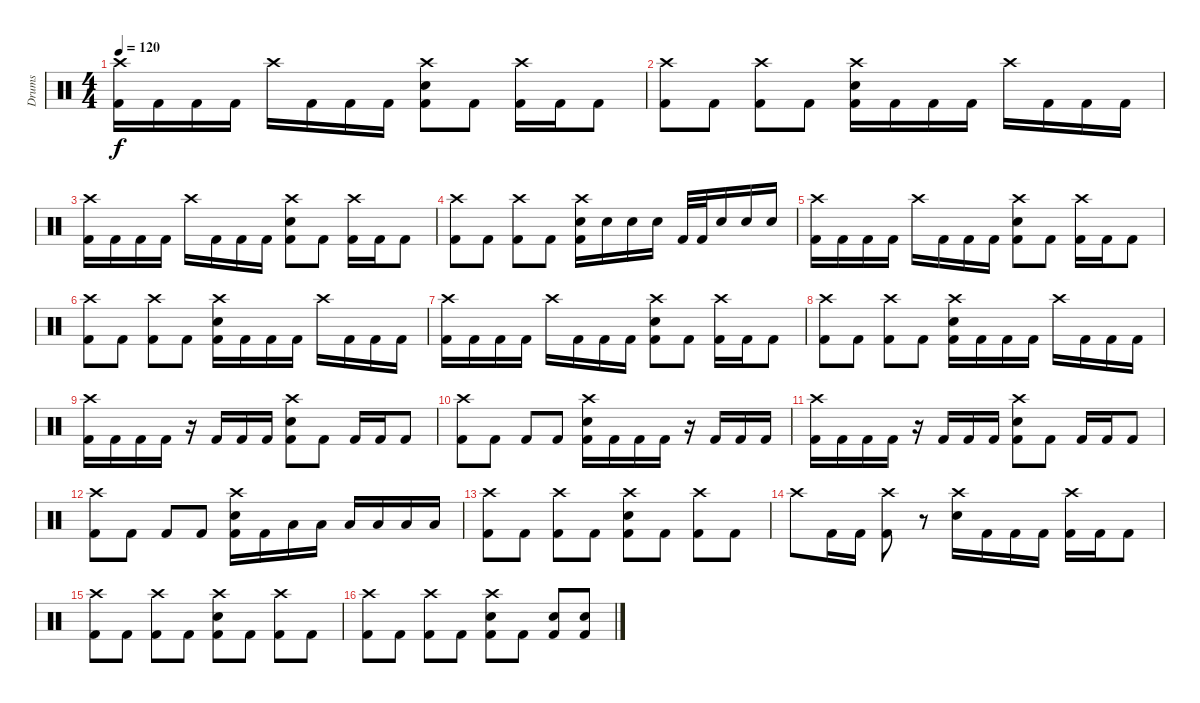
\track ("Drums" "Drums") {instrument percussion}
\staff {score}
\articulation defaults
\ts (4 4)
\tempo 120
\clef neutral
\ks c
("Crash high (hit)" "Kick (hit) 2").16{dy f} "Kick (hit) 2".16 "Kick (hit) 2".16 "Kick (hit) 2".16 "Crash high (hit)".16 "Kick (hit) 2".16 "Kick (hit) 2".16 "Kick (hit) 2".16 ("Crash high (hit)" "Electric Snare (hit)" "Kick (hit) 2").8 "Kick (hit) 2".8 ("Crash high (hit)" "Kick (hit) 2").16 "Kick (hit) 2".16 "Kick (hit) 2".8 |
("Crash high (hit)" "Kick (hit) 2").8 "Kick (hit) 2".8 ("Crash high (hit)" "Kick (hit) 2").8 "Kick (hit) 2".8 ("Crash high (hit)" "Electric Snare (hit)" "Kick (hit) 2").16 "Kick (hit) 2".16 "Kick (hit) 2".16 "Kick (hit) 2".16 "Crash high (hit)".16 "Kick (hit) 2".16 "Kick (hit) 2".16 "Kick (hit) 2".16 |
("Crash high (hit)" "Kick (hit) 2").16 "Kick (hit) 2".16 "Kick (hit) 2".16 "Kick (hit) 2".16 "Crash high (hit)".16 "Kick (hit) 2".16 "Kick (hit) 2".16 "Kick (hit) 2".16 ("Crash high (hit)" "Electric Snare (hit)" "Kick (hit) 2").8 "Kick (hit) 2".8 ("Crash high (hit)" "Kick (hit) 2").16 "Kick (hit) 2".16 "Kick (hit) 2".8 |
("Crash high (hit)" "Kick (hit) 2").8 "Kick (hit) 2".8 ("Crash high (hit)" "Kick (hit) 2").8 "Kick (hit) 2".8 ("Crash high (hit)" "Electric Snare (hit)" "Kick (hit) 2").16 "Electric Snare (hit)".16 "Electric Snare (hit)".16 "Electric Snare (hit)".16 "Kick (hit) 2".32 "Kick (hit) 2".32 "Electric Snare (hit)".16 "Electric Snare (hit)".16 "Electric Snare (hit)".16 |
("Crash high (hit)" "Kick (hit) 2").16 "Kick (hit) 2".16 "Kick (hit) 2".16 "Kick (hit) 2".16 "Crash high (hit)".16 "Kick (hit) 2".16 "Kick (hit) 2".16 "Kick (hit) 2".16 ("Crash high (hit)" "Electric Snare (hit)" "Kick (hit) 2").8 "Kick (hit) 2".8 ("Crash high (hit)" "Kick (hit) 2").16 "Kick (hit) 2".16 "Kick (hit) 2".8 |
("Crash high (hit)" "Kick (hit) 2").8 "Kick (hit) 2".8 ("Crash high (hit)" "Kick (hit) 2").8 "Kick (hit) 2".8 ("Crash high (hit)" "Electric Snare (hit)" "Kick (hit) 2").16 "Kick (hit) 2".16 "Kick (hit) 2".16 "Kick (hit) 2".16 "Crash high (hit)".16 "Kick (hit) 2".16 "Kick (hit) 2".16 "Kick (hit) 2".16 |
("Crash high (hit)" "Kick (hit) 2").16 "Kick (hit) 2".16 "Kick (hit) 2".16 "Kick (hit) 2".16 "Crash high (hit)".16 "Kick (hit) 2".16 "Kick (hit) 2".16 "Kick (hit) 2".16 ("Crash high (hit)" "Electric Snare (hit)" "Kick (hit) 2").8 "Kick (hit) 2".8 ("Crash high (hit)" "Kick (hit) 2").16 "Kick (hit) 2".16 "Kick (hit) 2".8 |
("Crash high (hit)" "Kick (hit) 2").8 "Kick (hit) 2".8 ("Crash high (hit)" "Kick (hit) 2").8 "Kick (hit) 2".8 ("Crash high (hit)" "Electric Snare (hit)" "Kick (hit) 2").16 "Kick (hit) 2".16 "Kick (hit) 2".16 "Kick (hit) 2".16 "Crash high (hit)".16 "Kick (hit) 2".16 "Kick (hit) 2".16 "Kick (hit) 2".16 |
("Crash high (hit)" "Kick (hit) 2").16 "Kick (hit) 2".16 "Kick (hit) 2".16 "Kick (hit) 2".16 r.16 "Kick (hit) 2".16 "Kick (hit) 2".16 "Kick (hit) 2".16 ("Crash high (hit)" "Electric Snare (hit)" "Kick (hit) 2").8 "Kick (hit) 2".8 "Kick (hit) 2".16 "Kick (hit) 2".16 "Kick (hit) 2".8 |
("Crash high (hit)" "Kick (hit) 2").8 "Kick (hit) 2".8 "Kick (hit) 2".8 "Kick (hit) 2".8 ("Crash high (hit)" "Electric Snare (hit)" "Kick (hit) 2").16 "Kick (hit) 2".16 "Kick (hit) 2".16 "Kick (hit) 2".16 r.16 "Kick (hit) 2".16 "Kick (hit) 2".16 "Kick (hit) 2".16 |
("Crash high (hit)" "Kick (hit) 2").16 "Kick (hit) 2".16 "Kick (hit) 2".16 "Kick (hit) 2".16 r.16 "Kick (hit) 2".16 "Kick (hit) 2".16 "Kick (hit) 2".16 ("Crash high (hit)" "Electric Snare (hit)" "Kick (hit) 2").8 "Kick (hit) 2".8 "Kick (hit) 2".16 "Kick (hit) 2".16 "Kick (hit) 2".8 |
("Crash high (hit)" "Kick (hit) 2").8 "Kick (hit) 2".8 "Kick (hit) 2".8 "Kick (hit) 2".8 ("Crash high (hit)" "Electric Snare (hit)" "Kick (hit) 2").16 "Kick (hit) 2".16 "Low Tom (hit)".16 "Low Tom (hit)".16 "Low Tom (hit)".16 "Low Tom (hit)".16 "Low Tom (hit)".16 "Low Tom (hit)".16 |
("Crash high (hit)" "Kick (hit) 2").8 "Kick (hit) 2".8 ("Crash high (hit)" "Kick (hit) 2").8 "Kick (hit) 2".8 ("Crash high (hit)" "Electric Snare (hit)" "Kick (hit) 2").8 "Kick (hit) 2".8 ("Crash high (hit)" "Kick (hit) 2").8 "Kick (hit) 2".8 |
"Crash high (hit)".8 "Kick (hit) 2".16 "Kick (hit) 2".16 ("Crash high (hit)" "Kick (hit) 2").8 r.8 ("Crash high (hit)" "Electric Snare (hit)").16 "Kick (hit) 2".16 "Kick (hit) 2".16 "Kick (hit) 2".16 ("Crash high (hit)" "Kick (hit) 2").16 "Kick (hit) 2".16 "Kick (hit) 2".8 |
("Crash high (hit)" "Kick (hit) 2").8 "Kick (hit) 2".8 ("Crash high (hit)" "Kick (hit) 2").8 "Kick (hit) 2".8 ("Crash high (hit)" "Electric Snare (hit)" "Kick (hit) 2").8 "Kick (hit) 2".8 ("Crash high (hit)" "Kick (hit) 2").8 "Kick (hit) 2".8 |
("Crash high (hit)" "Kick (hit) 2").8 "Kick (hit) 2".8 ("Crash high (hit)" "Kick (hit) 2").8 "Kick (hit) 2".8 ("Crash high (hit)" "Electric Snare (hit)" "Kick (hit) 2").8 "Kick (hit) 2".8 ("Electric Snare (hit)" "Kick (hit) 2").8 ("Electric Snare (hit)" "Kick (hit) 2").8
